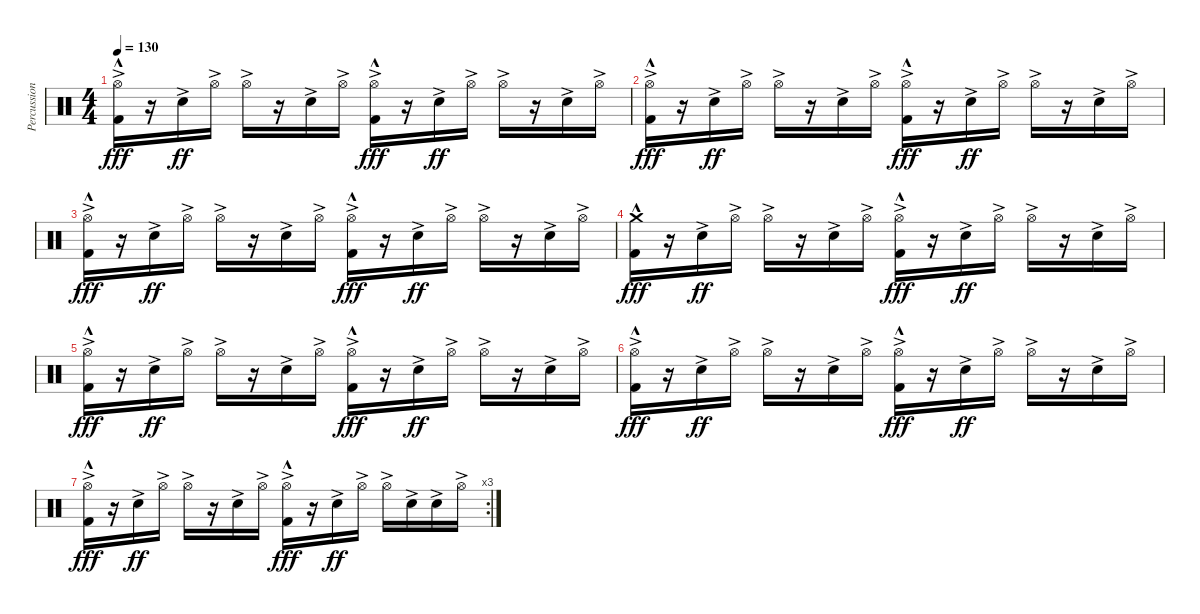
\track ("Percussion" "Percussion") {instrument percussion}
\staff {score}
\articulation defaults
\ts (4 4)
\tempo 130
\clef neutral
\ks c
("Hi-Hat (open)"{ac} "Kick (hit) 2"{hac}).16{dy fff} r.16 "Snare (hit) 2"{ac}.16{dy ff} "Hi-Hat (open)"{ac}.16 "Hi-Hat (open)"{ac}.16 r.16 "Snare (hit) 2"{ac}.16 "Hi-Hat (open)"{ac}.16 ("Hi-Hat (open)"{ac} "Kick (hit) 2"{hac}).16{dy fff} r.16 "Snare (hit) 2"{ac}.16{dy ff} "Hi-Hat (open)"{ac}.16 "Hi-Hat (open)"{ac}.16 r.16 "Snare (hit) 2"{ac}.16 "Hi-Hat (open)"{ac}.16 |
("Hi-Hat (open)"{ac} "Kick (hit) 2"{hac}).16{dy fff} r.16 "Snare (hit) 2"{ac}.16{dy ff} "Hi-Hat (open)"{ac}.16 "Hi-Hat (open)"{ac}.16 r.16 "Snare (hit) 2"{ac}.16 "Hi-Hat (open)"{ac}.16 ("Hi-Hat (open)"{ac} "Kick (hit) 2"{hac}).16{dy fff} r.16 "Snare (hit) 2"{ac}.16{dy ff} "Hi-Hat (open)"{ac}.16 "Hi-Hat (open)"{ac}.16 r.16 "Snare (hit) 2"{ac}.16 "Hi-Hat (open)"{ac}.16 |
("Hi-Hat (open)"{ac} "Kick (hit) 2"{hac}).16{dy fff} r.16 "Snare (hit) 2"{ac}.16{dy ff} "Hi-Hat (open)"{ac}.16 "Hi-Hat (open)"{ac}.16 r.16 "Snare (hit) 2"{ac}.16 "Hi-Hat (open)"{ac}.16 ("Hi-Hat (open)"{ac} "Kick (hit) 2"{hac}).16{dy fff} r.16 "Snare (hit) 2"{ac}.16{dy ff} "Hi-Hat (open)"{ac}.16 "Hi-Hat (open)"{ac}.16 r.16 "Snare (hit) 2"{ac}.16 "Hi-Hat (open)"{ac}.16 |
("Crash medium (hit)"{hac} "Kick (hit) 2"{hac}).16{dy fff} r.16 "Snare (hit) 2"{ac}.16{dy ff} "Hi-Hat (open)"{ac}.16 "Hi-Hat (open)"{ac}.16 r.16 "Snare (hit) 2"{ac}.16 "Hi-Hat (open)"{ac}.16 ("Hi-Hat (open)"{ac} "Kick (hit) 2"{hac}).16{dy fff} r.16 "Snare (hit) 2"{ac}.16{dy ff} "Hi-Hat (open)"{ac}.16 "Hi-Hat (open)"{ac}.16 r.16 "Snare (hit) 2"{ac}.16 "Hi-Hat (open)"{ac}.16 |
("Hi-Hat (open)"{ac} "Kick (hit) 2"{hac}).16{dy fff} r.16 "Snare (hit) 2"{ac}.16{dy ff} "Hi-Hat (open)"{ac}.16 "Hi-Hat (open)"{ac}.16 r.16 "Snare (hit) 2"{ac}.16 "Hi-Hat (open)"{ac}.16 ("Hi-Hat (open)"{ac} "Kick (hit) 2"{hac}).16{dy fff} r.16 "Snare (hit) 2"{ac}.16{dy ff} "Hi-Hat (open)"{ac}.16 "Hi-Hat (open)"{ac}.16 r.16 "Snare (hit) 2"{ac}.16 "Hi-Hat (open)"{ac}.16 |
("Hi-Hat (open)"{ac} "Kick (hit) 2"{hac}).16{dy fff} r.16 "Snare (hit) 2"{ac}.16{dy ff} "Hi-Hat (open)"{ac}.16 "Hi-Hat (open)"{ac}.16 r.16 "Snare (hit) 2"{ac}.16 "Hi-Hat (open)"{ac}.16 ("Hi-Hat (open)"{ac} "Kick (hit) 2"{hac}).16{dy fff} r.16 "Snare (hit) 2"{ac}.16{dy ff} "Hi-Hat (open)"{ac}.16 "Hi-Hat (open)"{ac}.16 r.16 "Snare (hit) 2"{ac}.16 "Hi-Hat (open)"{ac}.16 |
\rc 3
("Hi-Hat (open)"{ac} "Kick (hit) 2"{hac}).16{dy fff} r.16 "Snare (hit) 2"{ac}.16{dy ff} "Hi-Hat (open)"{ac}.16 "Hi-Hat (open)"{ac}.16 r.16 "Snare (hit) 2"{ac}.16 "Hi-Hat (open)"{ac}.16 ("Hi-Hat (open)"{ac} "Kick (hit) 2"{hac}).16{dy fff} r.16 "Snare (hit) 2"{ac}.16{dy ff} "Hi-Hat (open)"{ac}.16 "Hi-Hat (open)"{ac}.16 "Snare (hit) 2"{ac}.16 "Snare (hit) 2"{ac}.16 "Hi-Hat (open)"{ac}.16
